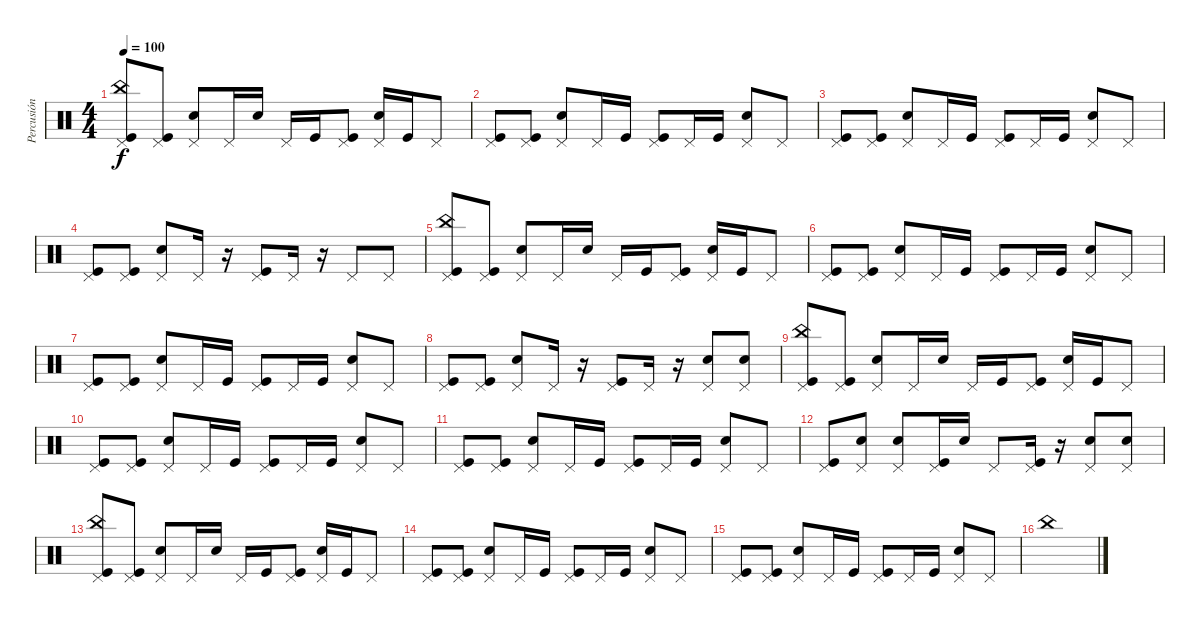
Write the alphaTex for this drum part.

\track ("Percusión" "Percusión") {instrument percussion}
\staff {score}
\articulation defaults
\ts (4 4)
\tempo 100
\clef neutral
\ks c
("Kick (hit)" "China (hit)" "Pedal Hi-Hat (hit)").8{dy f} ("Kick (hit)" "Pedal Hi-Hat (hit)").8 ("Electric Snare (hit)" "Pedal Hi-Hat (hit)").8 "Pedal Hi-Hat (hit)".16 "Electric Snare (hit)".16 "Pedal Hi-Hat (hit)".16 "Kick (hit)".16 ("Kick (hit)" "Pedal Hi-Hat (hit)").8 ("Electric Snare (hit)" "Pedal Hi-Hat (hit)").16 "Kick (hit)".16 "Pedal Hi-Hat (hit)".8 |
("Kick (hit)" "Pedal Hi-Hat (hit)").8 ("Kick (hit)" "Pedal Hi-Hat (hit)").8 ("Electric Snare (hit)" "Pedal Hi-Hat (hit)").8 "Pedal Hi-Hat (hit)".16 "Kick (hit)".16 ("Kick (hit)" "Pedal Hi-Hat (hit)").8 "Pedal Hi-Hat (hit)".16 "Kick (hit)".16 ("Electric Snare (hit)" "Pedal Hi-Hat (hit)").8 "Pedal Hi-Hat (hit)".8 |
("Kick (hit)" "Pedal Hi-Hat (hit)").8 ("Kick (hit)" "Pedal Hi-Hat (hit)").8 ("Electric Snare (hit)" "Pedal Hi-Hat (hit)").8 "Pedal Hi-Hat (hit)".16 "Kick (hit)".16 ("Kick (hit)" "Pedal Hi-Hat (hit)").8 "Pedal Hi-Hat (hit)".16 "Kick (hit)".16 ("Electric Snare (hit)" "Pedal Hi-Hat (hit)").8 "Pedal Hi-Hat (hit)".8 |
("Kick (hit)" "Pedal Hi-Hat (hit)").8 ("Kick (hit)" "Pedal Hi-Hat (hit)").8 ("Electric Snare (hit)" "Pedal Hi-Hat (hit)").8 "Pedal Hi-Hat (hit)".16 r.16 ("Kick (hit)" "Pedal Hi-Hat (hit)").8 "Pedal Hi-Hat (hit)".16 r.16 "Pedal Hi-Hat (hit)".8 "Pedal Hi-Hat (hit)".8 |
("Kick (hit)" "China (hit)" "Pedal Hi-Hat (hit)").8 ("Kick (hit)" "Pedal Hi-Hat (hit)").8 ("Electric Snare (hit)" "Pedal Hi-Hat (hit)").8 "Pedal Hi-Hat (hit)".16 "Electric Snare (hit)".16 "Pedal Hi-Hat (hit)".16 "Kick (hit)".16 ("Kick (hit)" "Pedal Hi-Hat (hit)").8 ("Electric Snare (hit)" "Pedal Hi-Hat (hit)").16 "Kick (hit)".16 "Pedal Hi-Hat (hit)".8 |
("Kick (hit)" "Pedal Hi-Hat (hit)").8 ("Kick (hit)" "Pedal Hi-Hat (hit)").8 ("Electric Snare (hit)" "Pedal Hi-Hat (hit)").8 "Pedal Hi-Hat (hit)".16 "Kick (hit)".16 ("Kick (hit)" "Pedal Hi-Hat (hit)").8 "Pedal Hi-Hat (hit)".16 "Kick (hit)".16 ("Electric Snare (hit)" "Pedal Hi-Hat (hit)").8 "Pedal Hi-Hat (hit)".8 |
("Kick (hit)" "Pedal Hi-Hat (hit)").8 ("Kick (hit)" "Pedal Hi-Hat (hit)").8 ("Electric Snare (hit)" "Pedal Hi-Hat (hit)").8 "Pedal Hi-Hat (hit)".16 "Kick (hit)".16 ("Kick (hit)" "Pedal Hi-Hat (hit)").8 "Pedal Hi-Hat (hit)".16 "Kick (hit)".16 ("Electric Snare (hit)" "Pedal Hi-Hat (hit)").8 "Pedal Hi-Hat (hit)".8 |
("Kick (hit)" "Pedal Hi-Hat (hit)").8 ("Kick (hit)" "Pedal Hi-Hat (hit)").8 ("Electric Snare (hit)" "Pedal Hi-Hat (hit)").8 "Pedal Hi-Hat (hit)".16 r.16 ("Kick (hit)" "Pedal Hi-Hat (hit)").8 "Pedal Hi-Hat (hit)".16 r.16 ("Electric Snare (hit)" "Pedal Hi-Hat (hit)").8 ("Electric Snare (hit)" "Pedal Hi-Hat (hit)").8 |
("Kick (hit)" "China (hit)" "Pedal Hi-Hat (hit)").8 ("Kick (hit)" "Pedal Hi-Hat (hit)").8 ("Electric Snare (hit)" "Pedal Hi-Hat (hit)").8 "Pedal Hi-Hat (hit)".16 "Electric Snare (hit)".16 "Pedal Hi-Hat (hit)".16 "Kick (hit)".16 ("Kick (hit)" "Pedal Hi-Hat (hit)").8 ("Electric Snare (hit)" "Pedal Hi-Hat (hit)").16 "Kick (hit)".16 "Pedal Hi-Hat (hit)".8 |
("Kick (hit)" "Pedal Hi-Hat (hit)").8 ("Kick (hit)" "Pedal Hi-Hat (hit)").8 ("Electric Snare (hit)" "Pedal Hi-Hat (hit)").8 "Pedal Hi-Hat (hit)".16 "Kick (hit)".16 ("Kick (hit)" "Pedal Hi-Hat (hit)").8 "Pedal Hi-Hat (hit)".16 "Kick (hit)".16 ("Electric Snare (hit)" "Pedal Hi-Hat (hit)").8 "Pedal Hi-Hat (hit)".8 |
("Kick (hit)" "Pedal Hi-Hat (hit)").8 ("Kick (hit)" "Pedal Hi-Hat (hit)").8 ("Electric Snare (hit)" "Pedal Hi-Hat (hit)").8 "Pedal Hi-Hat (hit)".16 "Kick (hit)".16 ("Kick (hit)" "Pedal Hi-Hat (hit)").8 "Pedal Hi-Hat (hit)".16 "Kick (hit)".16 ("Electric Snare (hit)" "Pedal Hi-Hat (hit)").8 "Pedal Hi-Hat (hit)".8 |
("Kick (hit)" "Pedal Hi-Hat (hit)").8 ("Electric Snare (hit)" "Pedal Hi-Hat (hit)").8 ("Electric Snare (hit)" "Pedal Hi-Hat (hit)").8 ("Kick (hit)" "Pedal Hi-Hat (hit)").16 "Electric Snare (hit)".16 "Pedal Hi-Hat (hit)".8 ("Kick (hit)" "Pedal Hi-Hat (hit)").16 r.16 ("Electric Snare (hit)" "Pedal Hi-Hat (hit)").8 ("Electric Snare (hit)" "Pedal Hi-Hat (hit)").8 |
("Kick (hit)" "China (hit)" "Pedal Hi-Hat (hit)").8 ("Kick (hit)" "Pedal Hi-Hat (hit)").8 ("Electric Snare (hit)" "Pedal Hi-Hat (hit)").8 "Pedal Hi-Hat (hit)".16 "Electric Snare (hit)".16 "Pedal Hi-Hat (hit)".16 "Kick (hit)".16 ("Kick (hit)" "Pedal Hi-Hat (hit)").8 ("Electric Snare (hit)" "Pedal Hi-Hat (hit)").16 "Kick (hit)".16 "Pedal Hi-Hat (hit)".8 |
("Kick (hit)" "Pedal Hi-Hat (hit)").8 ("Kick (hit)" "Pedal Hi-Hat (hit)").8 ("Electric Snare (hit)" "Pedal Hi-Hat (hit)").8 "Pedal Hi-Hat (hit)".16 "Kick (hit)".16 ("Kick (hit)" "Pedal Hi-Hat (hit)").8 "Pedal Hi-Hat (hit)".16 "Kick (hit)".16 ("Electric Snare (hit)" "Pedal Hi-Hat (hit)").8 "Pedal Hi-Hat (hit)".8 |
("Kick (hit)" "Pedal Hi-Hat (hit)").8 ("Kick (hit)" "Pedal Hi-Hat (hit)").8 ("Electric Snare (hit)" "Pedal Hi-Hat (hit)").8 "Pedal Hi-Hat (hit)".16 "Kick (hit)".16 ("Kick (hit)" "Pedal Hi-Hat (hit)").8 "Pedal Hi-Hat (hit)".16 "Kick (hit)".16 ("Electric Snare (hit)" "Pedal Hi-Hat (hit)").8 "Pedal Hi-Hat (hit)".8 |
"China (hit)".1
